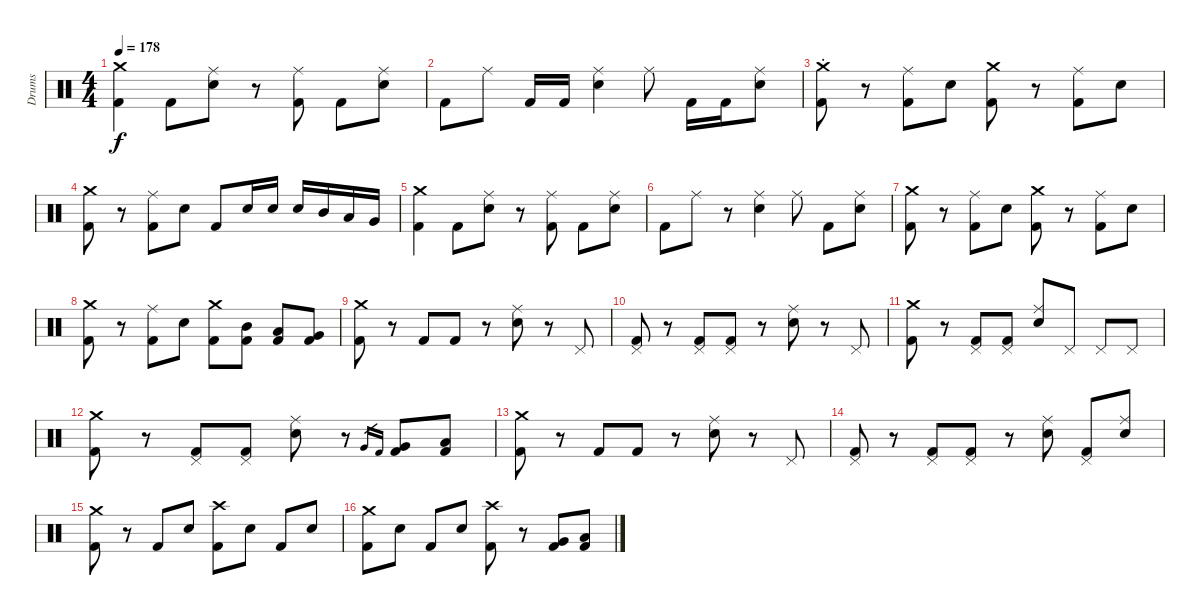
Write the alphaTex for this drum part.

\track ("Drums" "Drums") {instrument percussion}
\staff {score}
\articulation defaults
\ts (4 4)
\tempo 178
\clef neutral
\ks c
("Crash medium (hit)" "Kick (hit) 2").4{dy f} "Kick (hit) 2".8 ("Ride (middle)" "Electric Snare (hit)").8 r.8 ("Ride (middle)" "Kick (hit) 2").8 "Kick (hit) 2".8 ("Ride (middle)" "Electric Snare (hit)").8 |
"Kick (hit) 2".8 "Ride (middle)".8 "Kick (hit) 2".16 "Kick (hit) 2".16 ("Ride (middle)" "Electric Snare (hit)").4 "Ride (middle)".8 "Kick (hit) 2".16 "Kick (hit) 2".16 ("Ride (middle)" "Electric Snare (hit)").8 |
("Crash medium (hit)" "Kick (hit) 2"{st}).8 r.8 ("Ride (middle)" "Kick (hit) 2").8 "Electric Snare (hit)".8 ("Crash medium (hit)" "Kick (hit) 2").8 r.8 ("Ride (middle)" "Kick (hit) 2").8 "Electric Snare (hit)".8 |
("Crash medium (hit)" "Kick (hit) 2").8 r.8 ("Ride (middle)" "Kick (hit) 2").8 "Electric Snare (hit)".8 "Kick (hit) 2".8 "Electric Snare (hit)".16 "Electric Snare (hit)".16 "Electric Snare (hit)".16 "Mid Tom (hit)".16 "Low Tom (hit)".16 "Very Low Tom (hit)".16 |
("Crash medium (hit)" "Kick (hit) 2").4 "Kick (hit) 2".8 ("Ride (middle)" "Electric Snare (hit)").8 r.8 ("Ride (middle)" "Kick (hit) 2").8 "Kick (hit) 2".8 ("Ride (middle)" "Electric Snare (hit)").8 |
"Kick (hit) 2".8 "Ride (middle)".8 r.8 ("Ride (middle)" "Electric Snare (hit)").4 "Ride (middle)".8 "Kick (hit) 2".8 ("Ride (middle)" "Electric Snare (hit)").8 |
("Crash medium (hit)" "Kick (hit) 2").8 r.8 ("Ride (middle)" "Kick (hit) 2").8 "Electric Snare (hit)".8 ("Crash medium (hit)" "Kick (hit) 2").8 r.8 ("Ride (middle)" "Kick (hit) 2").8 "Electric Snare (hit)".8 |
("Crash medium (hit)" "Kick (hit) 2").8 r.8 ("Ride (middle)" "Kick (hit) 2").8 "Electric Snare (hit)".8 ("Crash medium (hit)" "Kick (hit) 2").8 ("Mid Tom (hit)" "Kick (hit) 2").8 ("Low Tom (hit)" "Kick (hit) 2").8 ("Very Low Tom (hit)" "Kick (hit) 2").8 |
\section ("" "")
("Crash medium (hit)" "Kick (hit) 2").8 r.8 "Kick (hit) 2".8 "Kick (hit) 2".8 r.8 ("Ride (middle)" "Electric Snare (hit)").8 r.8 "Pedal Hi-Hat (hit)".8 |
("Pedal Hi-Hat (hit)" "Kick (hit) 2").8 r.8 ("Pedal Hi-Hat (hit)" "Kick (hit) 2").8 ("Pedal Hi-Hat (hit)" "Kick (hit) 2").8 r.8 ("Ride (middle)" "Electric Snare (hit)").8 r.8 "Pedal Hi-Hat (hit)".8 |
("Crash medium (hit)" "Kick (hit) 2").8 r.8 ("Pedal Hi-Hat (hit)" "Kick (hit) 2").8 ("Pedal Hi-Hat (hit)" "Kick (hit) 2").8 ("Ride (middle)" "Electric Snare (hit)").8 "Pedal Hi-Hat (hit)".8 "Pedal Hi-Hat (hit)".8 "Pedal Hi-Hat (hit)".8 |
("Crash medium (hit)" "Kick (hit) 2").8 r.8 ("Pedal Hi-Hat (hit)" "Kick (hit) 2").8 ("Pedal Hi-Hat (hit)" "Kick (hit) 2").8 ("Ride (middle)" "Electric Snare (hit)").8 r.8 "Very Low Tom (hit)".16{gr} "Kick (hit) 2".16{gr} ("Very Low Tom (hit)" "Kick (hit) 2").8 ("Low Floor Tom (hit)" "Kick (hit) 2").8 |
("Crash medium (hit)" "Kick (hit) 2").8 r.8 "Kick (hit) 2".8 "Kick (hit) 2".8 r.8 ("Ride (middle)" "Electric Snare (hit)").8 r.8 "Pedal Hi-Hat (hit)".8 |
("Pedal Hi-Hat (hit)" "Kick (hit) 2").8 r.8 ("Pedal Hi-Hat (hit)" "Kick (hit) 2").8 ("Pedal Hi-Hat (hit)" "Kick (hit) 2").8 r.8 ("Ride (middle)" "Electric Snare (hit)").8 ("Pedal Hi-Hat (hit)" "Kick (hit) 2").8 ("Ride (middle)" "Electric Snare (hit)").8 |
("Crash medium (hit)" "Kick (hit) 2").8 r.8 "Kick (hit) 2".8 "Electric Snare (hit)".8 ("Crash high (hit)" "Kick (hit) 2").8 "Electric Snare (hit)".8 "Kick (hit) 2".8 "Electric Snare (hit)".8 |
("Crash medium (hit)" "Kick (hit) 2").8 "Electric Snare (hit)".8 "Kick (hit) 2".8 "Electric Snare (hit)".8 ("Crash high (hit)" "Kick (hit) 2").8 r.8 ("Very Low Tom (hit)" "Kick (hit) 2").8 ("Low Floor Tom (hit)" "Kick (hit) 2").8
